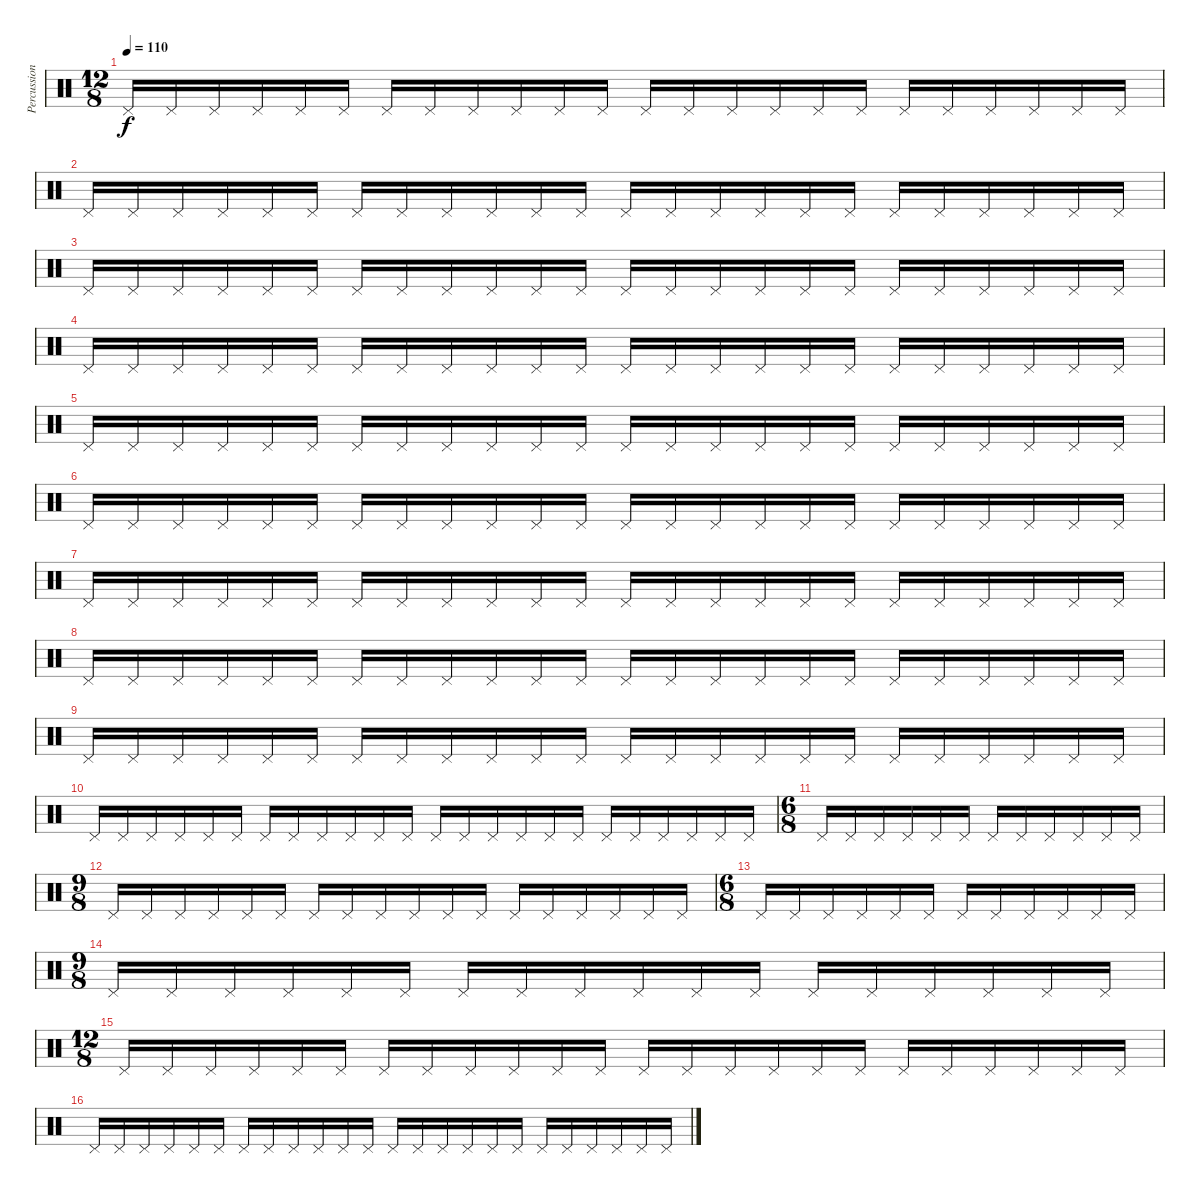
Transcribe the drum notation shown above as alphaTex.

\track ("Percussion" "Percussion") {instrument percussion}
\staff {score}
\articulation defaults
\ts (12 8)
\tempo 110
\clef neutral
\ks c "Pedal Hi-Hat (hit)".16{dy f} "Pedal Hi-Hat (hit)".16 "Pedal Hi-Hat (hit)".16 "Pedal Hi-Hat (hit)".16 "Pedal Hi-Hat (hit)".16 "Pedal Hi-Hat (hit)".16 "Pedal Hi-Hat (hit)".16 "Pedal Hi-Hat (hit)".16 "Pedal Hi-Hat (hit)".16 "Pedal Hi-Hat (hit)".16 "Pedal Hi-Hat (hit)".16 "Pedal Hi-Hat (hit)".16 "Pedal Hi-Hat (hit)".16 "Pedal Hi-Hat (hit)".16 "Pedal Hi-Hat (hit)".16 "Pedal Hi-Hat (hit)".16 "Pedal Hi-Hat (hit)".16 "Pedal Hi-Hat (hit)".16 "Pedal Hi-Hat (hit)".16 "Pedal Hi-Hat (hit)".16 "Pedal Hi-Hat (hit)".16 "Pedal Hi-Hat (hit)".16 "Pedal Hi-Hat (hit)".16 "Pedal Hi-Hat (hit)".16
|
"Pedal Hi-Hat (hit)".16 "Pedal Hi-Hat (hit)".16 "Pedal Hi-Hat (hit)".16 "Pedal Hi-Hat (hit)".16 "Pedal Hi-Hat (hit)".16 "Pedal Hi-Hat (hit)".16 "Pedal Hi-Hat (hit)".16 "Pedal Hi-Hat (hit)".16 "Pedal Hi-Hat (hit)".16 "Pedal Hi-Hat (hit)".16 "Pedal Hi-Hat (hit)".16 "Pedal Hi-Hat (hit)".16 "Pedal Hi-Hat (hit)".16 "Pedal Hi-Hat (hit)".16 "Pedal Hi-Hat (hit)".16 "Pedal Hi-Hat (hit)".16 "Pedal Hi-Hat (hit)".16 "Pedal Hi-Hat (hit)".16 "Pedal Hi-Hat (hit)".16 "Pedal Hi-Hat (hit)".16 "Pedal Hi-Hat (hit)".16 "Pedal Hi-Hat (hit)".16 "Pedal Hi-Hat (hit)".16 "Pedal Hi-Hat (hit)".16 |
"Pedal Hi-Hat (hit)".16 "Pedal Hi-Hat (hit)".16 "Pedal Hi-Hat (hit)".16 "Pedal Hi-Hat (hit)".16 "Pedal Hi-Hat (hit)".16 "Pedal Hi-Hat (hit)".16 "Pedal Hi-Hat (hit)".16 "Pedal Hi-Hat (hit)".16 "Pedal Hi-Hat (hit)".16 "Pedal Hi-Hat (hit)".16 "Pedal Hi-Hat (hit)".16 "Pedal Hi-Hat (hit)".16 "Pedal Hi-Hat (hit)".16 "Pedal Hi-Hat (hit)".16 "Pedal Hi-Hat (hit)".16 "Pedal Hi-Hat (hit)".16 "Pedal Hi-Hat (hit)".16 "Pedal Hi-Hat (hit)".16 "Pedal Hi-Hat (hit)".16 "Pedal Hi-Hat (hit)".16 "Pedal Hi-Hat (hit)".16 "Pedal Hi-Hat (hit)".16 "Pedal Hi-Hat (hit)".16 "Pedal Hi-Hat (hit)".16 |
"Pedal Hi-Hat (hit)".16 "Pedal Hi-Hat (hit)".16 "Pedal Hi-Hat (hit)".16 "Pedal Hi-Hat (hit)".16 "Pedal Hi-Hat (hit)".16 "Pedal Hi-Hat (hit)".16 "Pedal Hi-Hat (hit)".16 "Pedal Hi-Hat (hit)".16 "Pedal Hi-Hat (hit)".16 "Pedal Hi-Hat (hit)".16 "Pedal Hi-Hat (hit)".16 "Pedal Hi-Hat (hit)".16 "Pedal Hi-Hat (hit)".16 "Pedal Hi-Hat (hit)".16 "Pedal Hi-Hat (hit)".16 "Pedal Hi-Hat (hit)".16 "Pedal Hi-Hat (hit)".16 "Pedal Hi-Hat (hit)".16 "Pedal Hi-Hat (hit)".16 "Pedal Hi-Hat (hit)".16 "Pedal Hi-Hat (hit)".16 "Pedal Hi-Hat (hit)".16 "Pedal Hi-Hat (hit)".16 "Pedal Hi-Hat (hit)".16 |
"Pedal Hi-Hat (hit)".16 "Pedal Hi-Hat (hit)".16 "Pedal Hi-Hat (hit)".16 "Pedal Hi-Hat (hit)".16 "Pedal Hi-Hat (hit)".16 "Pedal Hi-Hat (hit)".16 "Pedal Hi-Hat (hit)".16 "Pedal Hi-Hat (hit)".16 "Pedal Hi-Hat (hit)".16 "Pedal Hi-Hat (hit)".16 "Pedal Hi-Hat (hit)".16 "Pedal Hi-Hat (hit)".16 "Pedal Hi-Hat (hit)".16 "Pedal Hi-Hat (hit)".16 "Pedal Hi-Hat (hit)".16 "Pedal Hi-Hat (hit)".16 "Pedal Hi-Hat (hit)".16 "Pedal Hi-Hat (hit)".16 "Pedal Hi-Hat (hit)".16 "Pedal Hi-Hat (hit)".16 "Pedal Hi-Hat (hit)".16 "Pedal Hi-Hat (hit)".16 "Pedal Hi-Hat (hit)".16 "Pedal Hi-Hat (hit)".16 |
"Pedal Hi-Hat (hit)".16 "Pedal Hi-Hat (hit)".16 "Pedal Hi-Hat (hit)".16 "Pedal Hi-Hat (hit)".16 "Pedal Hi-Hat (hit)".16 "Pedal Hi-Hat (hit)".16 "Pedal Hi-Hat (hit)".16 "Pedal Hi-Hat (hit)".16 "Pedal Hi-Hat (hit)".16 "Pedal Hi-Hat (hit)".16 "Pedal Hi-Hat (hit)".16 "Pedal Hi-Hat (hit)".16 "Pedal Hi-Hat (hit)".16 "Pedal Hi-Hat (hit)".16 "Pedal Hi-Hat (hit)".16 "Pedal Hi-Hat (hit)".16 "Pedal Hi-Hat (hit)".16 "Pedal Hi-Hat (hit)".16 "Pedal Hi-Hat (hit)".16 "Pedal Hi-Hat (hit)".16 "Pedal Hi-Hat (hit)".16 "Pedal Hi-Hat (hit)".16 "Pedal Hi-Hat (hit)".16 "Pedal Hi-Hat (hit)".16 |
"Pedal Hi-Hat (hit)".16 "Pedal Hi-Hat (hit)".16 "Pedal Hi-Hat (hit)".16 "Pedal Hi-Hat (hit)".16 "Pedal Hi-Hat (hit)".16 "Pedal Hi-Hat (hit)".16 "Pedal Hi-Hat (hit)".16 "Pedal Hi-Hat (hit)".16 "Pedal Hi-Hat (hit)".16 "Pedal Hi-Hat (hit)".16 "Pedal Hi-Hat (hit)".16 "Pedal Hi-Hat (hit)".16 "Pedal Hi-Hat (hit)".16 "Pedal Hi-Hat (hit)".16 "Pedal Hi-Hat (hit)".16 "Pedal Hi-Hat (hit)".16 "Pedal Hi-Hat (hit)".16 "Pedal Hi-Hat (hit)".16 "Pedal Hi-Hat (hit)".16 "Pedal Hi-Hat (hit)".16 "Pedal Hi-Hat (hit)".16 "Pedal Hi-Hat (hit)".16 "Pedal Hi-Hat (hit)".16 "Pedal Hi-Hat (hit)".16 |
"Pedal Hi-Hat (hit)".16 "Pedal Hi-Hat (hit)".16 "Pedal Hi-Hat (hit)".16 "Pedal Hi-Hat (hit)".16 "Pedal Hi-Hat (hit)".16 "Pedal Hi-Hat (hit)".16 "Pedal Hi-Hat (hit)".16 "Pedal Hi-Hat (hit)".16 "Pedal Hi-Hat (hit)".16 "Pedal Hi-Hat (hit)".16 "Pedal Hi-Hat (hit)".16 "Pedal Hi-Hat (hit)".16 "Pedal Hi-Hat (hit)".16 "Pedal Hi-Hat (hit)".16 "Pedal Hi-Hat (hit)".16 "Pedal Hi-Hat (hit)".16 "Pedal Hi-Hat (hit)".16 "Pedal Hi-Hat (hit)".16 "Pedal Hi-Hat (hit)".16 "Pedal Hi-Hat (hit)".16 "Pedal Hi-Hat (hit)".16 "Pedal Hi-Hat (hit)".16 "Pedal Hi-Hat (hit)".16 "Pedal Hi-Hat (hit)".16 |
"Pedal Hi-Hat (hit)".16 "Pedal Hi-Hat (hit)".16 "Pedal Hi-Hat (hit)".16 "Pedal Hi-Hat (hit)".16 "Pedal Hi-Hat (hit)".16 "Pedal Hi-Hat (hit)".16 "Pedal Hi-Hat (hit)".16 "Pedal Hi-Hat (hit)".16 "Pedal Hi-Hat (hit)".16 "Pedal Hi-Hat (hit)".16 "Pedal Hi-Hat (hit)".16 "Pedal Hi-Hat (hit)".16 "Pedal Hi-Hat (hit)".16 "Pedal Hi-Hat (hit)".16 "Pedal Hi-Hat (hit)".16 "Pedal Hi-Hat (hit)".16 "Pedal Hi-Hat (hit)".16 "Pedal Hi-Hat (hit)".16 "Pedal Hi-Hat (hit)".16 "Pedal Hi-Hat (hit)".16 "Pedal Hi-Hat (hit)".16 "Pedal Hi-Hat (hit)".16 "Pedal Hi-Hat (hit)".16 "Pedal Hi-Hat (hit)".16 |
"Pedal Hi-Hat (hit)".16 "Pedal Hi-Hat (hit)".16 "Pedal Hi-Hat (hit)".16 "Pedal Hi-Hat (hit)".16 "Pedal Hi-Hat (hit)".16 "Pedal Hi-Hat (hit)".16 "Pedal Hi-Hat (hit)".16 "Pedal Hi-Hat (hit)".16 "Pedal Hi-Hat (hit)".16 "Pedal Hi-Hat (hit)".16 "Pedal Hi-Hat (hit)".16 "Pedal Hi-Hat (hit)".16 "Pedal Hi-Hat (hit)".16 "Pedal Hi-Hat (hit)".16 "Pedal Hi-Hat (hit)".16 "Pedal Hi-Hat (hit)".16 "Pedal Hi-Hat (hit)".16 "Pedal Hi-Hat (hit)".16 "Pedal Hi-Hat (hit)".16 "Pedal Hi-Hat (hit)".16 "Pedal Hi-Hat (hit)".16 "Pedal Hi-Hat (hit)".16 "Pedal Hi-Hat (hit)".16 "Pedal Hi-Hat (hit)".16 |
\ts (6 8)
"Pedal Hi-Hat (hit)".16 "Pedal Hi-Hat (hit)".16 "Pedal Hi-Hat (hit)".16 "Pedal Hi-Hat (hit)".16 "Pedal Hi-Hat (hit)".16 "Pedal Hi-Hat (hit)".16 "Pedal Hi-Hat (hit)".16 "Pedal Hi-Hat (hit)".16 "Pedal Hi-Hat (hit)".16 "Pedal Hi-Hat (hit)".16 "Pedal Hi-Hat (hit)".16 "Pedal Hi-Hat (hit)".16 |
\ts (9 8)
"Pedal Hi-Hat (hit)".16 "Pedal Hi-Hat (hit)".16 "Pedal Hi-Hat (hit)".16 "Pedal Hi-Hat (hit)".16 "Pedal Hi-Hat (hit)".16 "Pedal Hi-Hat (hit)".16 "Pedal Hi-Hat (hit)".16 "Pedal Hi-Hat (hit)".16 "Pedal Hi-Hat (hit)".16 "Pedal Hi-Hat (hit)".16 "Pedal Hi-Hat (hit)".16 "Pedal Hi-Hat (hit)".16 "Pedal Hi-Hat (hit)".16 "Pedal Hi-Hat (hit)".16 "Pedal Hi-Hat (hit)".16 "Pedal Hi-Hat (hit)".16 "Pedal Hi-Hat (hit)".16 "Pedal Hi-Hat (hit)".16 |
\ts (6 8)
"Pedal Hi-Hat (hit)".16 "Pedal Hi-Hat (hit)".16 "Pedal Hi-Hat (hit)".16 "Pedal Hi-Hat (hit)".16 "Pedal Hi-Hat (hit)".16 "Pedal Hi-Hat (hit)".16 "Pedal Hi-Hat (hit)".16 "Pedal Hi-Hat (hit)".16 "Pedal Hi-Hat (hit)".16 "Pedal Hi-Hat (hit)".16 "Pedal Hi-Hat (hit)".16 "Pedal Hi-Hat (hit)".16 |
\ts (9 8)
"Pedal Hi-Hat (hit)".16 "Pedal Hi-Hat (hit)".16 "Pedal Hi-Hat (hit)".16 "Pedal Hi-Hat (hit)".16 "Pedal Hi-Hat (hit)".16 "Pedal Hi-Hat (hit)".16 "Pedal Hi-Hat (hit)".16 "Pedal Hi-Hat (hit)".16 "Pedal Hi-Hat (hit)".16 "Pedal Hi-Hat (hit)".16 "Pedal Hi-Hat (hit)".16 "Pedal Hi-Hat (hit)".16 "Pedal Hi-Hat (hit)".16 "Pedal Hi-Hat (hit)".16 "Pedal Hi-Hat (hit)".16 "Pedal Hi-Hat (hit)".16 "Pedal Hi-Hat (hit)".16 "Pedal Hi-Hat (hit)".16 |
\ts (12 8)
"Pedal Hi-Hat (hit)".16 "Pedal Hi-Hat (hit)".16 "Pedal Hi-Hat (hit)".16 "Pedal Hi-Hat (hit)".16 "Pedal Hi-Hat (hit)".16 "Pedal Hi-Hat (hit)".16 "Pedal Hi-Hat (hit)".16 "Pedal Hi-Hat (hit)".16 "Pedal Hi-Hat (hit)".16 "Pedal Hi-Hat (hit)".16 "Pedal Hi-Hat (hit)".16 "Pedal Hi-Hat (hit)".16 "Pedal Hi-Hat (hit)".16 "Pedal Hi-Hat (hit)".16 "Pedal Hi-Hat (hit)".16 "Pedal Hi-Hat (hit)".16 "Pedal Hi-Hat (hit)".16 "Pedal Hi-Hat (hit)".16 "Pedal Hi-Hat (hit)".16 "Pedal Hi-Hat (hit)".16 "Pedal Hi-Hat (hit)".16 "Pedal Hi-Hat (hit)".16 "Pedal Hi-Hat (hit)".16 "Pedal Hi-Hat (hit)".16 |
"Pedal Hi-Hat (hit)".16 "Pedal Hi-Hat (hit)".16 "Pedal Hi-Hat (hit)".16 "Pedal Hi-Hat (hit)".16 "Pedal Hi-Hat (hit)".16 "Pedal Hi-Hat (hit)".16 "Pedal Hi-Hat (hit)".16 "Pedal Hi-Hat (hit)".16 "Pedal Hi-Hat (hit)".16 "Pedal Hi-Hat (hit)".16 "Pedal Hi-Hat (hit)".16 "Pedal Hi-Hat (hit)".16 "Pedal Hi-Hat (hit)".16 "Pedal Hi-Hat (hit)".16 "Pedal Hi-Hat (hit)".16 "Pedal Hi-Hat (hit)".16 "Pedal Hi-Hat (hit)".16 "Pedal Hi-Hat (hit)".16 "Pedal Hi-Hat (hit)".16 "Pedal Hi-Hat (hit)".16 "Pedal Hi-Hat (hit)".16 "Pedal Hi-Hat (hit)".16 "Pedal Hi-Hat (hit)".16 "Pedal Hi-Hat (hit)".16
